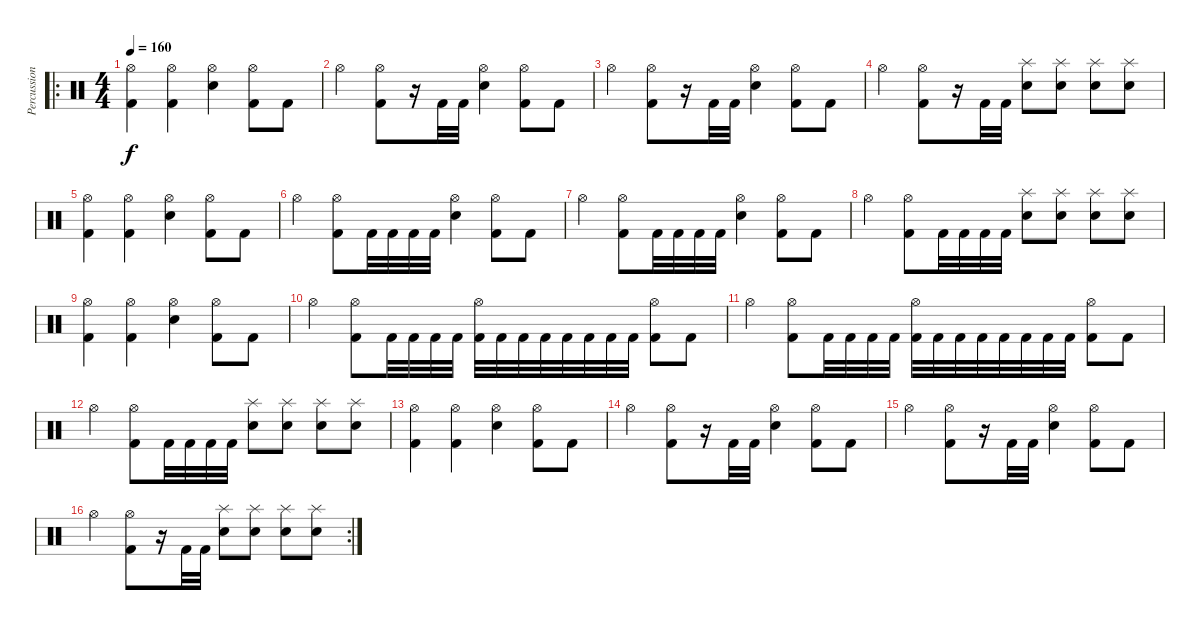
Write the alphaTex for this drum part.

\track ("Percussion" "Percussion") {instrument percussion}
\staff {score}
\articulation defaults
\ro
\ts (4 4)
\tempo 160
\clef neutral
\ks c
("Kick (hit) 2" "Hi-Hat (open)").4{dy f} ("Kick (hit) 2" "Hi-Hat (open)").4 ("Electric Snare (hit)" "Hi-Hat (open)").4 ("Kick (hit) 2" "Hi-Hat (open)").8 "Kick (hit) 2".8 |
"Hi-Hat (open)".4 ("Kick (hit) 2" "Hi-Hat (open)").8 r.16 "Kick (hit) 2".32 "Kick (hit) 2".32 ("Electric Snare (hit)" "Hi-Hat (open)").4 ("Kick (hit) 2" "Hi-Hat (open)").8 "Kick (hit) 2".8 |
"Hi-Hat (open)".4 ("Kick (hit) 2" "Hi-Hat (open)").8 r.16 "Kick (hit) 2".32 "Kick (hit) 2".32 ("Electric Snare (hit)" "Hi-Hat (open)").4 ("Kick (hit) 2" "Hi-Hat (open)").8 "Kick (hit) 2".8 |
"Hi-Hat (open)".4 ("Kick (hit) 2" "Hi-Hat (open)").8 r.16 "Kick (hit) 2".32 "Kick (hit) 2".32 ("Electric Snare (hit)" "Splash (hit)").8 ("Electric Snare (hit)" "Splash (hit)").8 ("Electric Snare (hit)" "Splash (hit)").8 ("Electric Snare (hit)" "Splash (hit)").8 |
("Kick (hit) 2" "Hi-Hat (open)").4 ("Kick (hit) 2" "Hi-Hat (open)").4 ("Electric Snare (hit)" "Hi-Hat (open)").4 ("Kick (hit) 2" "Hi-Hat (open)").8 "Kick (hit) 2".8 |
"Hi-Hat (open)".4 ("Kick (hit) 2" "Hi-Hat (open)").8 "Kick (hit) 2".32 "Kick (hit) 2".32 "Kick (hit) 2".32 "Kick (hit) 2".32 ("Electric Snare (hit)" "Hi-Hat (open)").4 ("Kick (hit) 2" "Hi-Hat (open)").8 "Kick (hit) 2".8 |
"Hi-Hat (open)".4 ("Kick (hit) 2" "Hi-Hat (open)").8 "Kick (hit) 2".32 "Kick (hit) 2".32 "Kick (hit) 2".32 "Kick (hit) 2".32 ("Electric Snare (hit)" "Hi-Hat (open)").4 ("Kick (hit) 2" "Hi-Hat (open)").8 "Kick (hit) 2".8 |
"Hi-Hat (open)".4 ("Kick (hit) 2" "Hi-Hat (open)").8 "Kick (hit) 2".32 "Kick (hit) 2".32 "Kick (hit) 2".32 "Kick (hit) 2".32 ("Electric Snare (hit)" "Splash (hit)").8 ("Electric Snare (hit)" "Splash (hit)").8 ("Electric Snare (hit)" "Splash (hit)").8 ("Electric Snare (hit)" "Splash (hit)").8 |
("Kick (hit) 2" "Hi-Hat (open)").4 ("Kick (hit) 2" "Hi-Hat (open)").4 ("Electric Snare (hit)" "Hi-Hat (open)").4 ("Kick (hit) 2" "Hi-Hat (open)").8 "Kick (hit) 2".8 |
"Hi-Hat (open)".4 ("Kick (hit) 2" "Hi-Hat (open)").8 "Kick (hit) 2".32 "Kick (hit) 2".32 "Kick (hit) 2".32 "Kick (hit) 2".32 ("Kick (hit) 2" "Hi-Hat (open)").32 "Kick (hit) 2".32 "Kick (hit) 2".32 "Kick (hit) 2".32 "Kick (hit) 2".32 "Kick (hit) 2".32 "Kick (hit) 2".32 "Kick (hit) 2".32 ("Kick (hit) 2" "Hi-Hat (open)").8 "Kick (hit) 2".8 |
"Hi-Hat (open)".4 ("Kick (hit) 2" "Hi-Hat (open)").8 "Kick (hit) 2".32 "Kick (hit) 2".32 "Kick (hit) 2".32 "Kick (hit) 2".32 ("Kick (hit) 2" "Hi-Hat (open)").32 "Kick (hit) 2".32 "Kick (hit) 2".32 "Kick (hit) 2".32 "Kick (hit) 2".32 "Kick (hit) 2".32 "Kick (hit) 2".32 "Kick (hit) 2".32 ("Kick (hit) 2" "Hi-Hat (open)").8 "Kick (hit) 2".8 |
"Hi-Hat (open)".4 ("Kick (hit) 2" "Hi-Hat (open)").8 "Kick (hit) 2".32 "Kick (hit) 2".32 "Kick (hit) 2".32 "Kick (hit) 2".32 ("Electric Snare (hit)" "Splash (hit)").8 ("Electric Snare (hit)" "Splash (hit)").8 ("Electric Snare (hit)" "Splash (hit)").8 ("Electric Snare (hit)" "Splash (hit)").8 |
("Kick (hit) 2" "Hi-Hat (open)").4 ("Kick (hit) 2" "Hi-Hat (open)").4 ("Electric Snare (hit)" "Hi-Hat (open)").4 ("Kick (hit) 2" "Hi-Hat (open)").8 "Kick (hit) 2".8 |
"Hi-Hat (open)".4 ("Kick (hit) 2" "Hi-Hat (open)").8 r.16 "Kick (hit) 2".32 "Kick (hit) 2".32 ("Electric Snare (hit)" "Hi-Hat (open)").4 ("Kick (hit) 2" "Hi-Hat (open)").8 "Kick (hit) 2".8 |
"Hi-Hat (open)".4 ("Kick (hit) 2" "Hi-Hat (open)").8 r.16 "Kick (hit) 2".32 "Kick (hit) 2".32 ("Electric Snare (hit)" "Hi-Hat (open)").4 ("Kick (hit) 2" "Hi-Hat (open)").8 "Kick (hit) 2".8 |
\rc 2 "Hi-Hat (open)".4
("Kick (hit) 2" "Hi-Hat (open)").8 r.16 "Kick (hit) 2".32 "Kick (hit) 2".32 ("Electric Snare (hit)" "Splash (hit)").8 ("Electric Snare (hit)" "Splash (hit)").8 ("Electric Snare (hit)" "Splash (hit)").8 ("Electric Snare (hit)" "Splash (hit)").8
